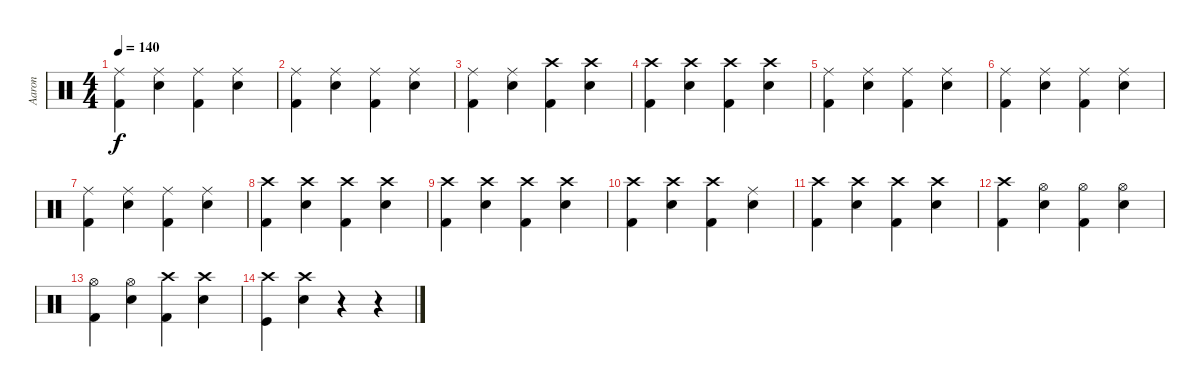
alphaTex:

\track ("Aaron" "Aaron") {instrument percussion}
\staff {score}
\articulation defaults
\ts (4 4)
\tempo 140
\clef neutral
\ks c
("Ride (middle)" "Kick (hit) 2").4{dy f} ("Ride (middle)" "Electric Snare (hit)").4 ("Ride (middle)" "Kick (hit) 2").4 ("Ride (middle)" "Electric Snare (hit)").4 |
("Ride (middle)" "Kick (hit) 2").4 ("Ride (middle)" "Electric Snare (hit)").4 ("Ride (middle)" "Kick (hit) 2").4 ("Ride (middle)" "Electric Snare (hit)").4 |
("Ride (middle)" "Kick (hit) 2").4 ("Ride (middle)" "Electric Snare (hit)").4 ("Crash high (hit)" "Kick (hit) 2").4 ("Crash high (hit)" "Electric Snare (hit)").4 |
("Crash high (hit)" "Kick (hit) 2").4 ("Crash high (hit)" "Electric Snare (hit)").4 ("Crash high (hit)" "Kick (hit) 2").4 ("Crash high (hit)" "Electric Snare (hit)").4 |
("Ride (middle)" "Kick (hit) 2").4 ("Ride (middle)" "Electric Snare (hit)").4 ("Ride (middle)" "Kick (hit) 2").4 ("Ride (middle)" "Electric Snare (hit)").4 |
("Ride (middle)" "Kick (hit) 2").4 ("Ride (middle)" "Electric Snare (hit)").4 ("Ride (middle)" "Kick (hit) 2").4 ("Ride (middle)" "Electric Snare (hit)").4 |
("Ride (middle)" "Kick (hit) 2").4 ("Ride (middle)" "Electric Snare (hit)").4 ("Ride (middle)" "Kick (hit) 2").4 ("Ride (middle)" "Electric Snare (hit)").4 |
("Crash high (hit)" "Kick (hit) 2").4 ("Crash high (hit)" "Electric Snare (hit)").4 ("Crash high (hit)" "Kick (hit) 2").4 ("Crash high (hit)" "Electric Snare (hit)").4 |
("Crash high (hit)" "Kick (hit) 2").4 ("Crash high (hit)" "Electric Snare (hit)").4 ("Crash high (hit)" "Kick (hit) 2").4 ("Crash high (hit)" "Electric Snare (hit)").4 |
("Crash high (hit)" "Kick (hit) 2").4 ("Crash high (hit)" "Electric Snare (hit)").4 ("Crash high (hit)" "Kick (hit) 2").4 ("Ride (middle)" "Electric Snare (hit)").4 |
("Crash high (hit)" "Kick (hit) 2").4 ("Crash high (hit)" "Electric Snare (hit)").4 ("Crash high (hit)" "Kick (hit) 2").4 ("Crash high (hit)" "Electric Snare (hit)").4 |
("Crash high (hit)" "Kick (hit) 2").4 ("Hi-Hat (open)" "Electric Snare (hit)").4 ("Hi-Hat (open)" "Kick (hit) 2").4 ("Hi-Hat (open)" "Electric Snare (hit)").4 |
("Hi-Hat (open)" "Kick (hit) 2").4 ("Hi-Hat (open)" "Electric Snare (hit)").4 ("Crash high (hit)" "Kick (hit) 2").4 ("Crash high (hit)" "Electric Snare (hit)").4 |
("Kick (hit)" "Crash high (hit)").4 ("Snare (hit) 2" "Crash high (hit)").4 r.4 r.4
